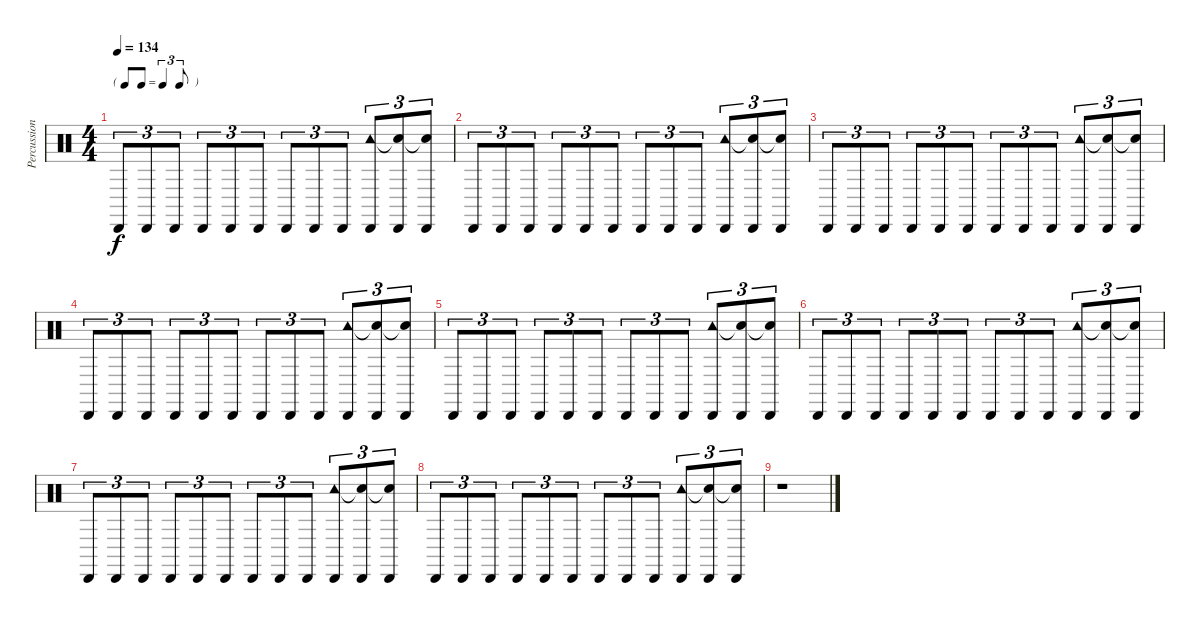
\track ("Percussion" "Percussion") {instrument percussion}
\staff {score}
\articulation defaults
\ts (4 4)
\tf triplet8th
\tempo 134
\clef neutral
\ks c "Cabasa (hit)".8{tu (3 2) dy f} "Cabasa (hit)".8{tu (3 2)} "Cabasa (hit)".8{tu (3 2)} "Cabasa (hit)".8{tu (3 2)} "Cabasa (hit)".8{tu (3 2)} "Cabasa (hit)".8{tu (3 2)} "Cabasa (hit)".8{tu (3 2)} "Cabasa (hit)".8{tu (3 2)} "Cabasa (hit)".8{tu (3 2)}
("Cabasa (hit)" "Tambourine (hit)").8{tu (3 2)} ("Cabasa (hit)" "Snare (hit)"{t}).8{tu (3 2)} ("Cabasa (hit)" "Snare (hit)"{t}).8{tu (3 2)} |
"Cabasa (hit)".8{tu (3 2)} "Cabasa (hit)".8{tu (3 2)} "Cabasa (hit)".8{tu (3 2)} "Cabasa (hit)".8{tu (3 2)} "Cabasa (hit)".8{tu (3 2)} "Cabasa (hit)".8{tu (3 2)} "Cabasa (hit)".8{tu (3 2)} "Cabasa (hit)".8{tu (3 2)} "Cabasa (hit)".8{tu (3 2)} ("Cabasa (hit)" "Tambourine (hit)").8{tu (3 2)} ("Cabasa (hit)" "Snare (hit)"{t}).8{tu (3 2)} ("Cabasa (hit)" "Snare (hit)"{t}).8{tu (3 2)} |
"Cabasa (hit)".8{tu (3 2)} "Cabasa (hit)".8{tu (3 2)} "Cabasa (hit)".8{tu (3 2)} "Cabasa (hit)".8{tu (3 2)} "Cabasa (hit)".8{tu (3 2)} "Cabasa (hit)".8{tu (3 2)} "Cabasa (hit)".8{tu (3 2)} "Cabasa (hit)".8{tu (3 2)} "Cabasa (hit)".8{tu (3 2)} ("Cabasa (hit)" "Tambourine (hit)").8{tu (3 2)} ("Cabasa (hit)" "Snare (hit)"{t}).8{tu (3 2)} ("Cabasa (hit)" "Snare (hit)"{t}).8{tu (3 2)} |
"Cabasa (hit)".8{tu (3 2)} "Cabasa (hit)".8{tu (3 2)} "Cabasa (hit)".8{tu (3 2)} "Cabasa (hit)".8{tu (3 2)} "Cabasa (hit)".8{tu (3 2)} "Cabasa (hit)".8{tu (3 2)} "Cabasa (hit)".8{tu (3 2)} "Cabasa (hit)".8{tu (3 2)} "Cabasa (hit)".8{tu (3 2)} ("Cabasa (hit)" "Tambourine (hit)").8{tu (3 2)} ("Cabasa (hit)" "Snare (hit)"{t}).8{tu (3 2)} ("Cabasa (hit)" "Snare (hit)"{t}).8{tu (3 2)} |
"Cabasa (hit)".8{tu (3 2)} "Cabasa (hit)".8{tu (3 2)} "Cabasa (hit)".8{tu (3 2)} "Cabasa (hit)".8{tu (3 2)} "Cabasa (hit)".8{tu (3 2)} "Cabasa (hit)".8{tu (3 2)} "Cabasa (hit)".8{tu (3 2)} "Cabasa (hit)".8{tu (3 2)} "Cabasa (hit)".8{tu (3 2)} ("Cabasa (hit)" "Tambourine (hit)").8{tu (3 2)} ("Cabasa (hit)" "Snare (hit)"{t}).8{tu (3 2)} ("Cabasa (hit)" "Snare (hit)"{t}).8{tu (3 2)} |
"Cabasa (hit)".8{tu (3 2)} "Cabasa (hit)".8{tu (3 2)} "Cabasa (hit)".8{tu (3 2)} "Cabasa (hit)".8{tu (3 2)} "Cabasa (hit)".8{tu (3 2)} "Cabasa (hit)".8{tu (3 2)} "Cabasa (hit)".8{tu (3 2)} "Cabasa (hit)".8{tu (3 2)} "Cabasa (hit)".8{tu (3 2)} ("Cabasa (hit)" "Tambourine (hit)").8{tu (3 2)} ("Cabasa (hit)" "Snare (hit)"{t}).8{tu (3 2)} ("Cabasa (hit)" "Snare (hit)"{t}).8{tu (3 2)} |
"Cabasa (hit)".8{tu (3 2)} "Cabasa (hit)".8{tu (3 2)} "Cabasa (hit)".8{tu (3 2)} "Cabasa (hit)".8{tu (3 2)} "Cabasa (hit)".8{tu (3 2)} "Cabasa (hit)".8{tu (3 2)} "Cabasa (hit)".8{tu (3 2)} "Cabasa (hit)".8{tu (3 2)} "Cabasa (hit)".8{tu (3 2)} ("Cabasa (hit)" "Tambourine (hit)").8{tu (3 2)} ("Cabasa (hit)" "Snare (hit)"{t}).8{tu (3 2)} ("Cabasa (hit)" "Snare (hit)"{t}).8{tu (3 2)} |
"Cabasa (hit)".8{tu (3 2)} "Cabasa (hit)".8{tu (3 2)} "Cabasa (hit)".8{tu (3 2)} "Cabasa (hit)".8{tu (3 2)} "Cabasa (hit)".8{tu (3 2)} "Cabasa (hit)".8{tu (3 2)} "Cabasa (hit)".8{tu (3 2)} "Cabasa (hit)".8{tu (3 2)} "Cabasa (hit)".8{tu (3 2)} ("Cabasa (hit)" "Tambourine (hit)").8{tu (3 2)} ("Cabasa (hit)" "Snare (hit)"{t}).8{tu (3 2)} ("Cabasa (hit)" "Snare (hit)"{t}).8{tu (3 2)} |
r.1
